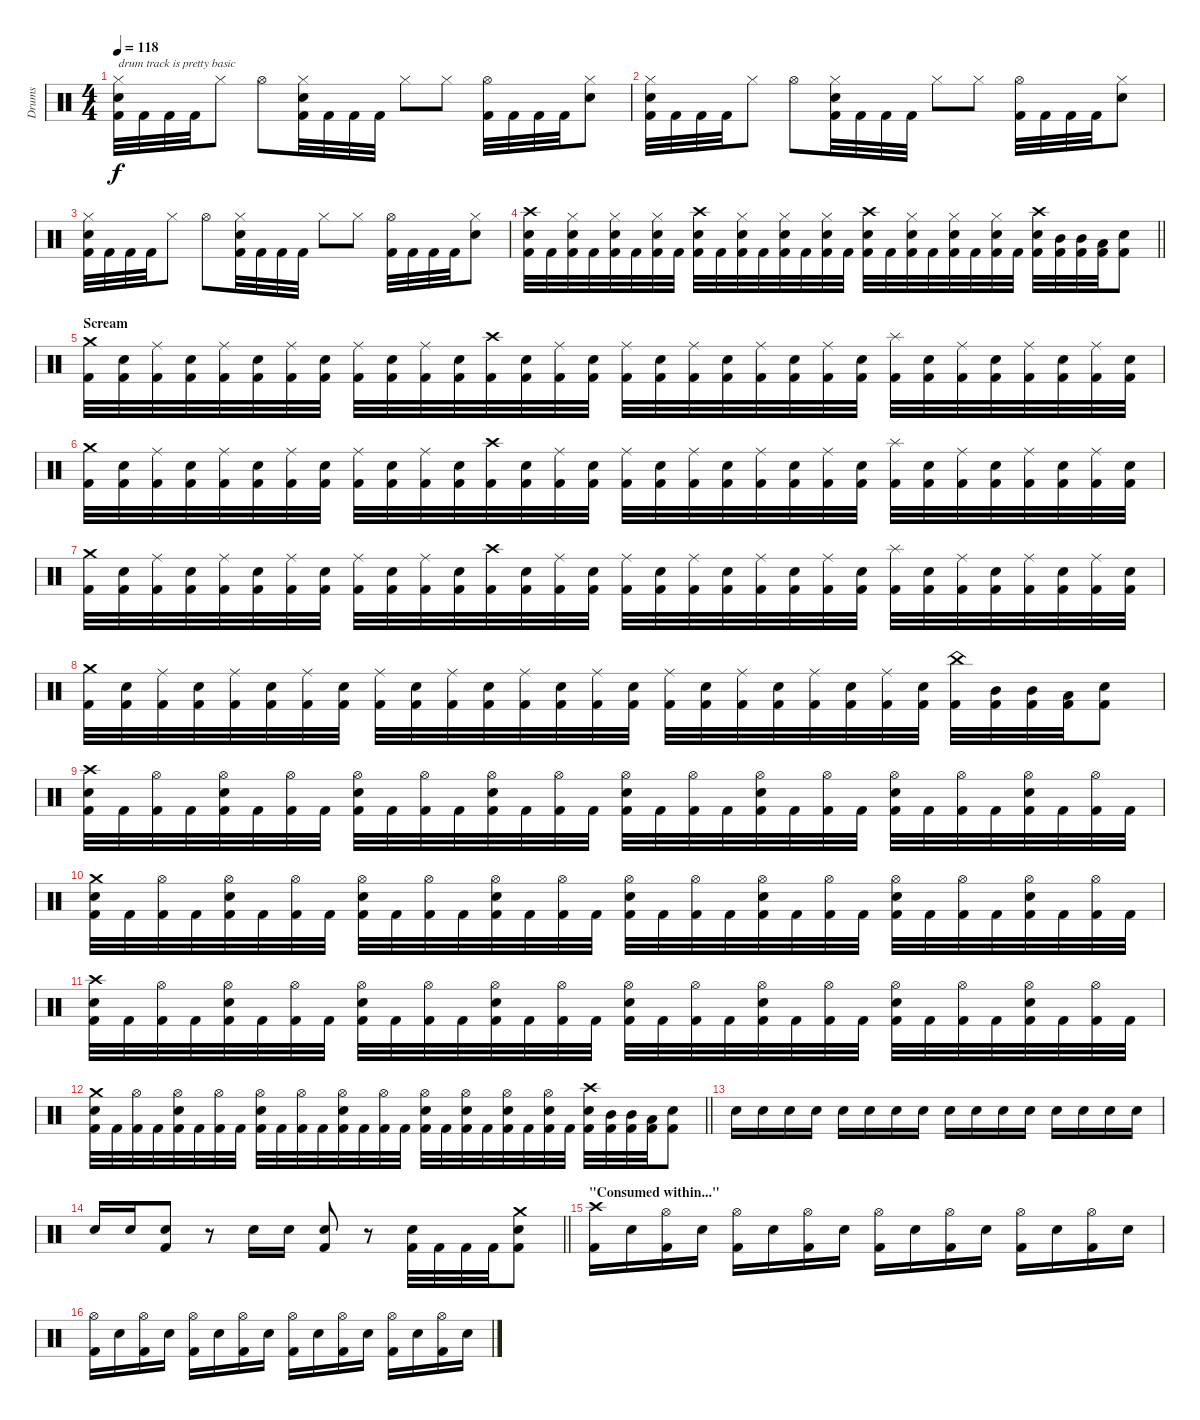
\track ("Drums" "Drums") {instrument percussion}
\staff {score}
\articulation defaults
\ts (4 4)
\section ("" "")
\tempo 118
\clef neutral
\ks c
("Hi-Hat (closed)" "Electric Snare (hit)" "Kick (hit) 2").32{txt "drum track is pretty basic" dy f} "Kick (hit) 2".32 "Kick (hit) 2".32 "Kick (hit) 2".32 "Hi-Hat (closed)".8 "Hi-Hat (open)".8 ("Hi-Hat (closed)" "Electric Snare (hit)" "Kick (hit) 2").32 "Kick (hit) 2".32 "Kick (hit) 2".32 "Kick (hit) 2".32 "Hi-Hat (closed)".8 "Hi-Hat (closed)".8 ("Hi-Hat (open)" "Kick (hit) 2").32 "Kick (hit) 2".32 "Kick (hit) 2".32 "Kick (hit) 2".32 ("Hi-Hat (closed)" "Electric Snare (hit)").8 |
("Hi-Hat (closed)" "Electric Snare (hit)" "Kick (hit) 2").32 "Kick (hit) 2".32 "Kick (hit) 2".32 "Kick (hit) 2".32 "Hi-Hat (closed)".8 "Hi-Hat (open)".8 ("Hi-Hat (closed)" "Electric Snare (hit)" "Kick (hit) 2").32 "Kick (hit) 2".32 "Kick (hit) 2".32 "Kick (hit) 2".32 "Hi-Hat (closed)".8 "Hi-Hat (closed)".8 ("Hi-Hat (open)" "Kick (hit) 2").32 "Kick (hit) 2".32 "Kick (hit) 2".32 "Kick (hit) 2".32 ("Hi-Hat (closed)" "Electric Snare (hit)").8 |
("Hi-Hat (closed)" "Electric Snare (hit)" "Kick (hit) 2").32 "Kick (hit) 2".32 "Kick (hit) 2".32 "Kick (hit) 2".32 "Hi-Hat (closed)".8 "Hi-Hat (open)".8 ("Hi-Hat (closed)" "Electric Snare (hit)" "Kick (hit) 2").32 "Kick (hit) 2".32 "Kick (hit) 2".32 "Kick (hit) 2".32 "Hi-Hat (closed)".8 "Hi-Hat (closed)".8 ("Hi-Hat (open)" "Kick (hit) 2").32 "Kick (hit) 2".32 "Kick (hit) 2".32 "Kick (hit) 2".32 ("Hi-Hat (closed)" "Electric Snare (hit)").8 |
\barLineRight lightlight
("Crash high (hit)" "Electric Snare (hit)" "Kick (hit) 2").32 "Kick (hit) 2".32 ("Hi-Hat (closed)" "Electric Snare (hit)" "Kick (hit) 2").32 "Kick (hit) 2".32 ("Hi-Hat (closed)" "Electric Snare (hit)" "Kick (hit) 2").32 "Kick (hit) 2".32 ("Hi-Hat (closed)" "Electric Snare (hit)" "Kick (hit) 2").32 "Kick (hit) 2".32 ("Crash high (hit)" "Electric Snare (hit)" "Kick (hit) 2").32 "Kick (hit) 2".32 ("Hi-Hat (closed)" "Electric Snare (hit)" "Kick (hit) 2").32 "Kick (hit) 2".32 ("Hi-Hat (closed)" "Electric Snare (hit)" "Kick (hit) 2").32 "Kick (hit) 2".32 ("Hi-Hat (closed)" "Electric Snare (hit)" "Kick (hit) 2").32 "Kick (hit) 2".32 ("Crash high (hit)" "Electric Snare (hit)" "Kick (hit) 2").32 "Kick (hit) 2".32 ("Hi-Hat (closed)" "Electric Snare (hit)" "Kick (hit) 2").32 "Kick (hit) 2".32 ("Hi-Hat (closed)" "Electric Snare (hit)" "Kick (hit) 2").32 "Kick (hit) 2".32 ("Hi-Hat (closed)" "Electric Snare (hit)" "Kick (hit) 2").32 "Kick (hit) 2".32 ("Crash high (hit)" "Electric Snare (hit)" "Kick (hit) 2").32 ("Mid Tom (hit)" "Kick (hit) 2").32 ("Mid Tom (hit)" "Kick (hit) 2").32 ("Low Tom (hit)" "Kick (hit) 2").32 ("Electric Snare (hit)" "Kick (hit) 2").8 |
\section ("" "Scream")
("Crash medium (hit)" "Kick (hit) 2").32 ("Electric Snare (hit)" "Kick (hit) 2").32 ("Ride (middle)" "Kick (hit) 2").32 ("Electric Snare (hit)" "Kick (hit) 2").32 ("Ride (middle)" "Kick (hit) 2").32 ("Electric Snare (hit)" "Kick (hit) 2").32 ("Ride (middle)" "Kick (hit) 2").32 ("Electric Snare (hit)" "Kick (hit) 2").32 ("Ride (middle)" "Kick (hit) 2").32 ("Electric Snare (hit)" "Kick (hit) 2").32 ("Ride (middle)" "Kick (hit) 2").32 ("Electric Snare (hit)" "Kick (hit) 2").32 ("Crash high (hit)" "Kick (hit) 2").32 ("Electric Snare (hit)" "Kick (hit) 2").32 ("Ride (middle)" "Kick (hit) 2").32 ("Electric Snare (hit)" "Kick (hit) 2").32 ("Ride (middle)" "Kick (hit) 2").32 ("Electric Snare (hit)" "Kick (hit) 2").32 ("Ride (middle)" "Kick (hit) 2").32 ("Electric Snare (hit)" "Kick (hit) 2").32 ("Ride (middle)" "Kick (hit) 2").32 ("Electric Snare (hit)" "Kick (hit) 2").32 ("Ride (middle)" "Kick (hit) 2").32 ("Electric Snare (hit)" "Kick (hit) 2").32 ("Splash (hit)" "Kick (hit) 2").32 ("Electric Snare (hit)" "Kick (hit) 2").32 ("Ride (middle)" "Kick (hit) 2").32 ("Electric Snare (hit)" "Kick (hit) 2").32 ("Ride (middle)" "Kick (hit) 2").32 ("Electric Snare (hit)" "Kick (hit) 2").32 ("Ride (middle)" "Kick (hit) 2").32 ("Electric Snare (hit)" "Kick (hit) 2").32 |
("Crash medium (hit)" "Kick (hit) 2").32 ("Electric Snare (hit)" "Kick (hit) 2").32 ("Ride (middle)" "Kick (hit) 2").32 ("Electric Snare (hit)" "Kick (hit) 2").32 ("Ride (middle)" "Kick (hit) 2").32 ("Electric Snare (hit)" "Kick (hit) 2").32 ("Ride (middle)" "Kick (hit) 2").32 ("Electric Snare (hit)" "Kick (hit) 2").32 ("Ride (middle)" "Kick (hit) 2").32 ("Electric Snare (hit)" "Kick (hit) 2").32 ("Ride (middle)" "Kick (hit) 2").32 ("Electric Snare (hit)" "Kick (hit) 2").32 ("Crash high (hit)" "Kick (hit) 2").32 ("Electric Snare (hit)" "Kick (hit) 2").32 ("Ride (middle)" "Kick (hit) 2").32 ("Electric Snare (hit)" "Kick (hit) 2").32 ("Ride (middle)" "Kick (hit) 2").32 ("Electric Snare (hit)" "Kick (hit) 2").32 ("Ride (middle)" "Kick (hit) 2").32 ("Electric Snare (hit)" "Kick (hit) 2").32 ("Ride (middle)" "Kick (hit) 2").32 ("Electric Snare (hit)" "Kick (hit) 2").32 ("Ride (middle)" "Kick (hit) 2").32 ("Electric Snare (hit)" "Kick (hit) 2").32 ("Splash (hit)" "Kick (hit) 2").32 ("Electric Snare (hit)" "Kick (hit) 2").32 ("Ride (middle)" "Kick (hit) 2").32 ("Electric Snare (hit)" "Kick (hit) 2").32 ("Ride (middle)" "Kick (hit) 2").32 ("Electric Snare (hit)" "Kick (hit) 2").32 ("Ride (middle)" "Kick (hit) 2").32 ("Electric Snare (hit)" "Kick (hit) 2").32 |
("Crash medium (hit)" "Kick (hit) 2").32 ("Electric Snare (hit)" "Kick (hit) 2").32 ("Ride (middle)" "Kick (hit) 2").32 ("Electric Snare (hit)" "Kick (hit) 2").32 ("Ride (middle)" "Kick (hit) 2").32 ("Electric Snare (hit)" "Kick (hit) 2").32 ("Ride (middle)" "Kick (hit) 2").32 ("Electric Snare (hit)" "Kick (hit) 2").32 ("Ride (middle)" "Kick (hit) 2").32 ("Electric Snare (hit)" "Kick (hit) 2").32 ("Ride (middle)" "Kick (hit) 2").32 ("Electric Snare (hit)" "Kick (hit) 2").32 ("Crash high (hit)" "Kick (hit) 2").32 ("Electric Snare (hit)" "Kick (hit) 2").32 ("Ride (middle)" "Kick (hit) 2").32 ("Electric Snare (hit)" "Kick (hit) 2").32 ("Ride (middle)" "Kick (hit) 2").32 ("Electric Snare (hit)" "Kick (hit) 2").32 ("Ride (middle)" "Kick (hit) 2").32 ("Electric Snare (hit)" "Kick (hit) 2").32 ("Ride (middle)" "Kick (hit) 2").32 ("Electric Snare (hit)" "Kick (hit) 2").32 ("Ride (middle)" "Kick (hit) 2").32 ("Electric Snare (hit)" "Kick (hit) 2").32 ("Splash (hit)" "Kick (hit) 2").32 ("Electric Snare (hit)" "Kick (hit) 2").32 ("Ride (middle)" "Kick (hit) 2").32 ("Electric Snare (hit)" "Kick (hit) 2").32 ("Ride (middle)" "Kick (hit) 2").32 ("Electric Snare (hit)" "Kick (hit) 2").32 ("Ride (middle)" "Kick (hit) 2").32 ("Electric Snare (hit)" "Kick (hit) 2").32 |
("Crash medium (hit)" "Kick (hit) 2").32 ("Electric Snare (hit)" "Kick (hit) 2").32 ("Ride (middle)" "Kick (hit) 2").32 ("Electric Snare (hit)" "Kick (hit) 2").32 ("Ride (middle)" "Kick (hit) 2").32 ("Electric Snare (hit)" "Kick (hit) 2").32 ("Ride (middle)" "Kick (hit) 2").32 ("Electric Snare (hit)" "Kick (hit) 2").32 ("Ride (middle)" "Kick (hit) 2").32 ("Electric Snare (hit)" "Kick (hit) 2").32 ("Ride (middle)" "Kick (hit) 2").32 ("Electric Snare (hit)" "Kick (hit) 2").32 ("Ride (middle)" "Kick (hit) 2").32 ("Electric Snare (hit)" "Kick (hit) 2").32 ("Ride (middle)" "Kick (hit) 2").32 ("Electric Snare (hit)" "Kick (hit) 2").32 ("Ride (middle)" "Kick (hit) 2").32 ("Electric Snare (hit)" "Kick (hit) 2").32 ("Ride (middle)" "Kick (hit) 2").32 ("Electric Snare (hit)" "Kick (hit) 2").32 ("Ride (middle)" "Kick (hit) 2").32 ("Electric Snare (hit)" "Kick (hit) 2").32 ("Ride (middle)" "Kick (hit) 2").32 ("Electric Snare (hit)" "Kick (hit) 2").32 ("China (hit)" "Kick (hit) 2").32 ("Mid Tom (hit)" "Kick (hit) 2").32 ("Mid Tom (hit)" "Kick (hit) 2").32 ("Low Tom (hit)" "Kick (hit) 2").32 ("Electric Snare (hit)" "Kick (hit) 2").8 |
("Crash high (hit)" "Electric Snare (hit)" "Kick (hit) 2").32 "Kick (hit) 2".32 ("Hi-Hat (open)" "Kick (hit) 2").32 "Kick (hit) 2".32 ("Hi-Hat (open)" "Electric Snare (hit)" "Kick (hit) 2").32 "Kick (hit) 2".32 ("Hi-Hat (open)" "Kick (hit) 2").32 "Kick (hit) 2".32 ("Hi-Hat (open)" "Electric Snare (hit)" "Kick (hit) 2").32 "Kick (hit) 2".32 ("Hi-Hat (open)" "Kick (hit) 2").32 "Kick (hit) 2".32 ("Hi-Hat (open)" "Electric Snare (hit)" "Kick (hit) 2").32 "Kick (hit) 2".32 ("Hi-Hat (open)" "Kick (hit) 2").32 "Kick (hit) 2".32 ("Hi-Hat (open)" "Electric Snare (hit)" "Kick (hit) 2").32 "Kick (hit) 2".32 ("Hi-Hat (open)" "Kick (hit) 2").32 "Kick (hit) 2".32 ("Hi-Hat (open)" "Electric Snare (hit)" "Kick (hit) 2").32 "Kick (hit) 2".32 ("Hi-Hat (open)" "Kick (hit) 2").32 "Kick (hit) 2".32 ("Hi-Hat (open)" "Electric Snare (hit)" "Kick (hit) 2").32 "Kick (hit) 2".32 ("Hi-Hat (open)" "Kick (hit) 2").32 "Kick (hit) 2".32 ("Hi-Hat (open)" "Electric Snare (hit)" "Kick (hit) 2").32 "Kick (hit) 2".32 ("Hi-Hat (open)" "Kick (hit) 2").32 "Kick (hit) 2".32 |
("Crash medium (hit)" "Electric Snare (hit)" "Kick (hit) 2").32 "Kick (hit) 2".32 ("Hi-Hat (open)" "Kick (hit) 2").32 "Kick (hit) 2".32 ("Hi-Hat (open)" "Electric Snare (hit)" "Kick (hit) 2").32 "Kick (hit) 2".32 ("Hi-Hat (open)" "Kick (hit) 2").32 "Kick (hit) 2".32 ("Hi-Hat (open)" "Electric Snare (hit)" "Kick (hit) 2").32 "Kick (hit) 2".32 ("Hi-Hat (open)" "Kick (hit) 2").32 "Kick (hit) 2".32 ("Hi-Hat (open)" "Electric Snare (hit)" "Kick (hit) 2").32 "Kick (hit) 2".32 ("Hi-Hat (open)" "Kick (hit) 2").32 "Kick (hit) 2".32 ("Hi-Hat (open)" "Electric Snare (hit)" "Kick (hit) 2").32 "Kick (hit) 2".32 ("Hi-Hat (open)" "Kick (hit) 2").32 "Kick (hit) 2".32 ("Hi-Hat (open)" "Electric Snare (hit)" "Kick (hit) 2").32 "Kick (hit) 2".32 ("Hi-Hat (open)" "Kick (hit) 2").32 "Kick (hit) 2".32 ("Hi-Hat (open)" "Electric Snare (hit)" "Kick (hit) 2").32 "Kick (hit) 2".32 ("Hi-Hat (open)" "Kick (hit) 2").32 "Kick (hit) 2".32 ("Hi-Hat (open)" "Electric Snare (hit)" "Kick (hit) 2").32 "Kick (hit) 2".32 ("Hi-Hat (open)" "Kick (hit) 2").32 "Kick (hit) 2".32 |
("Crash high (hit)" "Electric Snare (hit)" "Kick (hit) 2").32 "Kick (hit) 2".32 ("Hi-Hat (open)" "Kick (hit) 2").32 "Kick (hit) 2".32 ("Hi-Hat (open)" "Electric Snare (hit)" "Kick (hit) 2").32 "Kick (hit) 2".32 ("Hi-Hat (open)" "Kick (hit) 2").32 "Kick (hit) 2".32 ("Hi-Hat (open)" "Electric Snare (hit)" "Kick (hit) 2").32 "Kick (hit) 2".32 ("Hi-Hat (open)" "Kick (hit) 2").32 "Kick (hit) 2".32 ("Hi-Hat (open)" "Electric Snare (hit)" "Kick (hit) 2").32 "Kick (hit) 2".32 ("Hi-Hat (open)" "Kick (hit) 2").32 "Kick (hit) 2".32 ("Hi-Hat (open)" "Electric Snare (hit)" "Kick (hit) 2").32 "Kick (hit) 2".32 ("Hi-Hat (open)" "Kick (hit) 2").32 "Kick (hit) 2".32 ("Hi-Hat (open)" "Electric Snare (hit)" "Kick (hit) 2").32 "Kick (hit) 2".32 ("Hi-Hat (open)" "Kick (hit) 2").32 "Kick (hit) 2".32 ("Hi-Hat (open)" "Electric Snare (hit)" "Kick (hit) 2").32 "Kick (hit) 2".32 ("Hi-Hat (open)" "Kick (hit) 2").32 "Kick (hit) 2".32 ("Hi-Hat (open)" "Electric Snare (hit)" "Kick (hit) 2").32 "Kick (hit) 2".32 ("Hi-Hat (open)" "Kick (hit) 2").32 "Kick (hit) 2".32 |
\barLineRight lightlight
("Crash medium (hit)" "Electric Snare (hit)" "Kick (hit) 2").32 "Kick (hit) 2".32 ("Hi-Hat (open)" "Kick (hit) 2").32 "Kick (hit) 2".32 ("Hi-Hat (open)" "Electric Snare (hit)" "Kick (hit) 2").32 "Kick (hit) 2".32 ("Hi-Hat (open)" "Kick (hit) 2").32 "Kick (hit) 2".32 ("Hi-Hat (open)" "Electric Snare (hit)" "Kick (hit) 2").32 "Kick (hit) 2".32 ("Hi-Hat (open)" "Kick (hit) 2").32 "Kick (hit) 2".32 ("Hi-Hat (open)" "Electric Snare (hit)" "Kick (hit) 2").32 "Kick (hit) 2".32 ("Hi-Hat (open)" "Kick (hit) 2").32 "Kick (hit) 2".32 ("Hi-Hat (open)" "Electric Snare (hit)" "Kick (hit) 2").32 "Kick (hit) 2".32 ("Hi-Hat (open)" "Electric Snare (hit)" "Kick (hit) 2").32 "Kick (hit) 2".32 ("Hi-Hat (open)" "Electric Snare (hit)" "Kick (hit) 2").32 "Kick (hit) 2".32 ("Hi-Hat (open)" "Electric Snare (hit)" "Kick (hit) 2").32 "Kick (hit) 2".32 ("Crash high (hit)" "Electric Snare (hit)" "Kick (hit) 2").32 ("Mid Tom (hit)" "Kick (hit) 2").32 ("Mid Tom (hit)" "Kick (hit) 2").32 ("Low Tom (hit)" "Kick (hit) 2").32 ("Electric Snare (hit)" "Kick (hit) 2").8 |
\section ("" "")
"Electric Snare (hit)".16 "Electric Snare (hit)".16 "Electric Snare (hit)".16 "Electric Snare (hit)".16 "Electric Snare (hit)".16 "Electric Snare (hit)".16 "Electric Snare (hit)".16 "Electric Snare (hit)".16 "Electric Snare (hit)".16 "Electric Snare (hit)".16 "Electric Snare (hit)".16 "Electric Snare (hit)".16 "Electric Snare (hit)".16 "Electric Snare (hit)".16 "Electric Snare (hit)".16 "Electric Snare (hit)".16 |
\barLineRight lightlight "Electric Snare (hit)".16 "Electric Snare (hit)".16
("Electric Snare (hit)" "Kick (hit) 2").8 r.8 "Electric Snare (hit)".16 "Electric Snare (hit)".16 ("Electric Snare (hit)" "Kick (hit) 2").8 r.8 ("Electric Snare (hit)" "Kick (hit) 2").32 "Kick (hit) 2".32 "Kick (hit) 2".32 "Kick (hit) 2".32 ("Crash medium (hit)" "Electric Snare (hit)" "Kick (hit) 2").8 |
\section ("" "\"Consumed within...\"")
("Crash high (hit)" "Kick (hit) 2").16 "Electric Snare (hit)".16 ("Hi-Hat (open)" "Kick (hit) 2").16 "Electric Snare (hit)".16 ("Hi-Hat (open)" "Kick (hit) 2").16 "Electric Snare (hit)".16 ("Hi-Hat (open)" "Kick (hit) 2").16 "Electric Snare (hit)".16 ("Hi-Hat (open)" "Kick (hit) 2").16 "Electric Snare (hit)".16 ("Hi-Hat (open)" "Kick (hit) 2").16 "Electric Snare (hit)".16 ("Hi-Hat (open)" "Kick (hit) 2").16 "Electric Snare (hit)".16 ("Hi-Hat (open)" "Kick (hit) 2").16 "Electric Snare (hit)".16 |
("Hi-Hat (open)" "Kick (hit) 2").16 "Electric Snare (hit)".16 ("Hi-Hat (open)" "Kick (hit) 2").16 "Electric Snare (hit)".16 ("Hi-Hat (open)" "Kick (hit) 2").16 "Electric Snare (hit)".16 ("Hi-Hat (open)" "Kick (hit) 2").16 "Electric Snare (hit)".16 ("Hi-Hat (open)" "Kick (hit) 2").16 "Electric Snare (hit)".16 ("Hi-Hat (open)" "Kick (hit) 2").16 "Electric Snare (hit)".16 ("Hi-Hat (open)" "Kick (hit) 2").16 "Electric Snare (hit)".16 ("Hi-Hat (open)" "Kick (hit) 2").16 "Electric Snare (hit)".16
